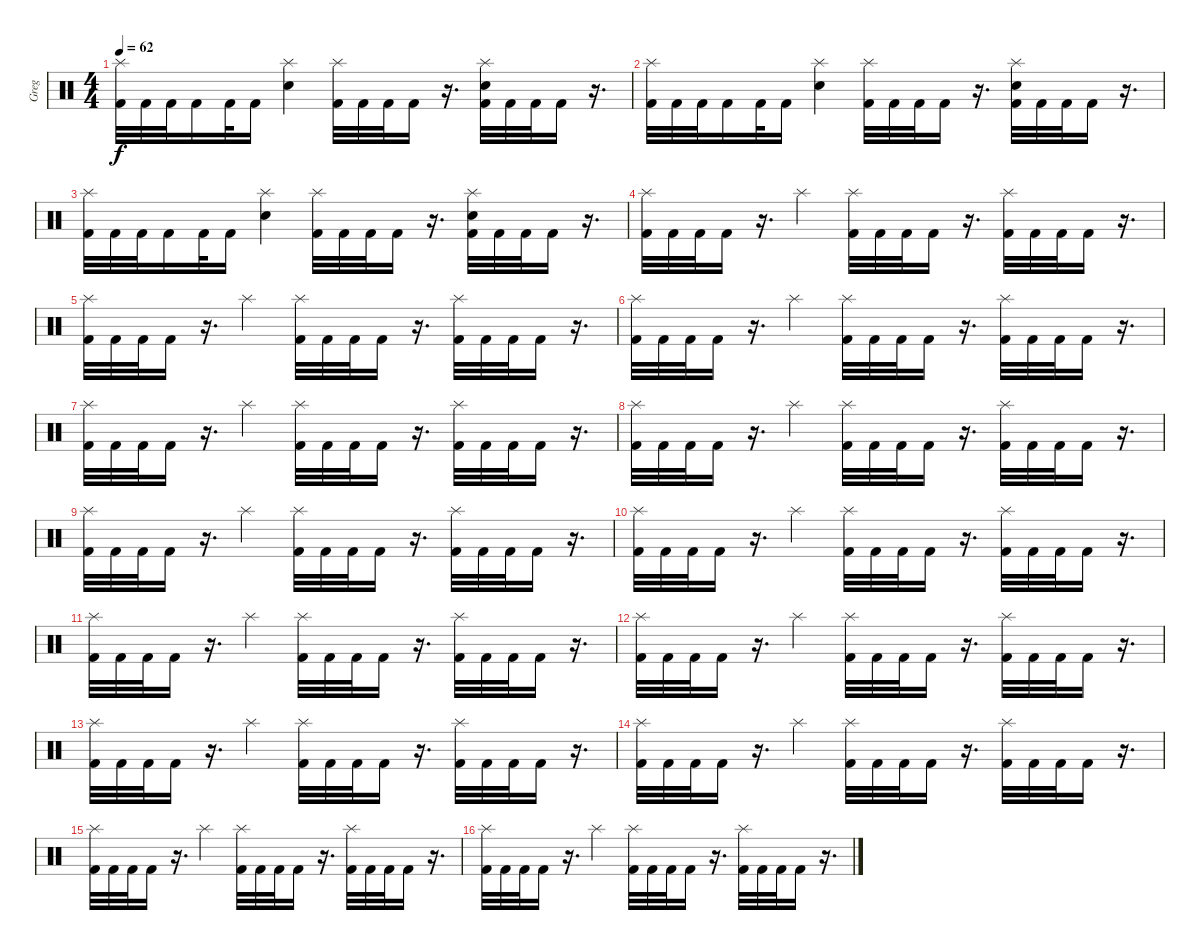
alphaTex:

\track ("Greg" "Greg") {instrument percussion}
\staff {score}
\articulation defaults
\ts (4 4)
\tempo 62
\clef neutral
\ks c
("Splash (hit)" "Kick (hit) 2").32{dy f} "Kick (hit) 2".32 "Kick (hit) 2".32 "Kick (hit) 2".16 "Kick (hit) 2".32 "Kick (hit) 2".16 ("Splash (hit)" "Snare (hit) 2").4 ("Splash (hit)" "Kick (hit) 2").32 "Kick (hit) 2".32 "Kick (hit) 2".32 "Kick (hit) 2".16 r.16{d} ("Splash (hit)" "Snare (hit) 2" "Kick (hit) 2").32 "Kick (hit) 2".32 "Kick (hit) 2".32 "Kick (hit) 2".16 r.16{d} |
("Splash (hit)" "Kick (hit) 2").32 "Kick (hit) 2".32 "Kick (hit) 2".32 "Kick (hit) 2".16 "Kick (hit) 2".32 "Kick (hit) 2".16 ("Splash (hit)" "Snare (hit) 2").4 ("Splash (hit)" "Kick (hit) 2").32 "Kick (hit) 2".32 "Kick (hit) 2".32 "Kick (hit) 2".16 r.16{d} ("Splash (hit)" "Snare (hit) 2" "Kick (hit) 2").32 "Kick (hit) 2".32 "Kick (hit) 2".32 "Kick (hit) 2".16 r.16{d} |
("Splash (hit)" "Kick (hit) 2").32 "Kick (hit) 2".32 "Kick (hit) 2".32 "Kick (hit) 2".16 "Kick (hit) 2".32 "Kick (hit) 2".16 ("Splash (hit)" "Snare (hit) 2").4 ("Splash (hit)" "Kick (hit) 2").32 "Kick (hit) 2".32 "Kick (hit) 2".32 "Kick (hit) 2".16 r.16{d} ("Splash (hit)" "Snare (hit) 2" "Kick (hit) 2").32 "Kick (hit) 2".32 "Kick (hit) 2".32 "Kick (hit) 2".16 r.16{d} |
("Splash (hit)" "Kick (hit) 2").32 "Kick (hit) 2".32 "Kick (hit) 2".32 "Kick (hit) 2".16 r.16{d} "Splash (hit)".4 ("Splash (hit)" "Kick (hit) 2").32 "Kick (hit) 2".32 "Kick (hit) 2".32 "Kick (hit) 2".16 r.16{d} ("Splash (hit)" "Kick (hit) 2").32 "Kick (hit) 2".32 "Kick (hit) 2".32 "Kick (hit) 2".16 r.16{d} |
("Splash (hit)" "Kick (hit) 2").32 "Kick (hit) 2".32 "Kick (hit) 2".32 "Kick (hit) 2".16 r.16{d} "Splash (hit)".4 ("Splash (hit)" "Kick (hit) 2").32 "Kick (hit) 2".32 "Kick (hit) 2".32 "Kick (hit) 2".16 r.16{d} ("Splash (hit)" "Kick (hit) 2").32 "Kick (hit) 2".32 "Kick (hit) 2".32 "Kick (hit) 2".16 r.16{d} |
("Splash (hit)" "Kick (hit) 2").32 "Kick (hit) 2".32 "Kick (hit) 2".32 "Kick (hit) 2".16 r.16{d} "Splash (hit)".4 ("Splash (hit)" "Kick (hit) 2").32 "Kick (hit) 2".32 "Kick (hit) 2".32 "Kick (hit) 2".16 r.16{d} ("Splash (hit)" "Kick (hit) 2").32 "Kick (hit) 2".32 "Kick (hit) 2".32 "Kick (hit) 2".16 r.16{d} |
("Splash (hit)" "Kick (hit) 2").32 "Kick (hit) 2".32 "Kick (hit) 2".32 "Kick (hit) 2".16 r.16{d} "Splash (hit)".4 ("Splash (hit)" "Kick (hit) 2").32 "Kick (hit) 2".32 "Kick (hit) 2".32 "Kick (hit) 2".16 r.16{d} ("Splash (hit)" "Kick (hit) 2").32 "Kick (hit) 2".32 "Kick (hit) 2".32 "Kick (hit) 2".16 r.16{d} |
("Splash (hit)" "Kick (hit) 2").32 "Kick (hit) 2".32 "Kick (hit) 2".32 "Kick (hit) 2".16 r.16{d} "Splash (hit)".4 ("Splash (hit)" "Kick (hit) 2").32 "Kick (hit) 2".32 "Kick (hit) 2".32 "Kick (hit) 2".16 r.16{d} ("Splash (hit)" "Kick (hit) 2").32 "Kick (hit) 2".32 "Kick (hit) 2".32 "Kick (hit) 2".16 r.16{d} |
("Splash (hit)" "Kick (hit) 2").32 "Kick (hit) 2".32 "Kick (hit) 2".32 "Kick (hit) 2".16 r.16{d} "Splash (hit)".4 ("Splash (hit)" "Kick (hit) 2").32 "Kick (hit) 2".32 "Kick (hit) 2".32 "Kick (hit) 2".16 r.16{d} ("Splash (hit)" "Kick (hit) 2").32 "Kick (hit) 2".32 "Kick (hit) 2".32 "Kick (hit) 2".16 r.16{d} |
("Splash (hit)" "Kick (hit) 2").32 "Kick (hit) 2".32 "Kick (hit) 2".32 "Kick (hit) 2".16 r.16{d} "Splash (hit)".4 ("Splash (hit)" "Kick (hit) 2").32 "Kick (hit) 2".32 "Kick (hit) 2".32 "Kick (hit) 2".16 r.16{d} ("Splash (hit)" "Kick (hit) 2").32 "Kick (hit) 2".32 "Kick (hit) 2".32 "Kick (hit) 2".16 r.16{d} |
("Splash (hit)" "Kick (hit) 2").32 "Kick (hit) 2".32 "Kick (hit) 2".32 "Kick (hit) 2".16 r.16{d} "Splash (hit)".4 ("Splash (hit)" "Kick (hit) 2").32 "Kick (hit) 2".32 "Kick (hit) 2".32 "Kick (hit) 2".16 r.16{d} ("Splash (hit)" "Kick (hit) 2").32 "Kick (hit) 2".32 "Kick (hit) 2".32 "Kick (hit) 2".16 r.16{d} |
("Splash (hit)" "Kick (hit) 2").32 "Kick (hit) 2".32 "Kick (hit) 2".32 "Kick (hit) 2".16 r.16{d} "Splash (hit)".4 ("Splash (hit)" "Kick (hit) 2").32 "Kick (hit) 2".32 "Kick (hit) 2".32 "Kick (hit) 2".16 r.16{d} ("Splash (hit)" "Kick (hit) 2").32 "Kick (hit) 2".32 "Kick (hit) 2".32 "Kick (hit) 2".16 r.16{d} |
("Splash (hit)" "Kick (hit) 2").32 "Kick (hit) 2".32 "Kick (hit) 2".32 "Kick (hit) 2".16 r.16{d} "Splash (hit)".4 ("Splash (hit)" "Kick (hit) 2").32 "Kick (hit) 2".32 "Kick (hit) 2".32 "Kick (hit) 2".16 r.16{d} ("Splash (hit)" "Kick (hit) 2").32 "Kick (hit) 2".32 "Kick (hit) 2".32 "Kick (hit) 2".16 r.16{d} |
("Splash (hit)" "Kick (hit) 2").32 "Kick (hit) 2".32 "Kick (hit) 2".32 "Kick (hit) 2".16 r.16{d} "Splash (hit)".4 ("Splash (hit)" "Kick (hit) 2").32 "Kick (hit) 2".32 "Kick (hit) 2".32 "Kick (hit) 2".16 r.16{d} ("Splash (hit)" "Kick (hit) 2").32 "Kick (hit) 2".32 "Kick (hit) 2".32 "Kick (hit) 2".16 r.16{d} |
("Splash (hit)" "Kick (hit) 2").32 "Kick (hit) 2".32 "Kick (hit) 2".32 "Kick (hit) 2".16 r.16{d} "Splash (hit)".4 ("Splash (hit)" "Kick (hit) 2").32 "Kick (hit) 2".32 "Kick (hit) 2".32 "Kick (hit) 2".16 r.16{d} ("Splash (hit)" "Kick (hit) 2").32 "Kick (hit) 2".32 "Kick (hit) 2".32 "Kick (hit) 2".16 r.16{d} |
("Splash (hit)" "Kick (hit) 2").32 "Kick (hit) 2".32 "Kick (hit) 2".32 "Kick (hit) 2".16 r.16{d} "Splash (hit)".4 ("Splash (hit)" "Kick (hit) 2").32 "Kick (hit) 2".32 "Kick (hit) 2".32 "Kick (hit) 2".16 r.16{d} ("Splash (hit)" "Kick (hit) 2").32 "Kick (hit) 2".32 "Kick (hit) 2".32 "Kick (hit) 2".16 r.16{d}
